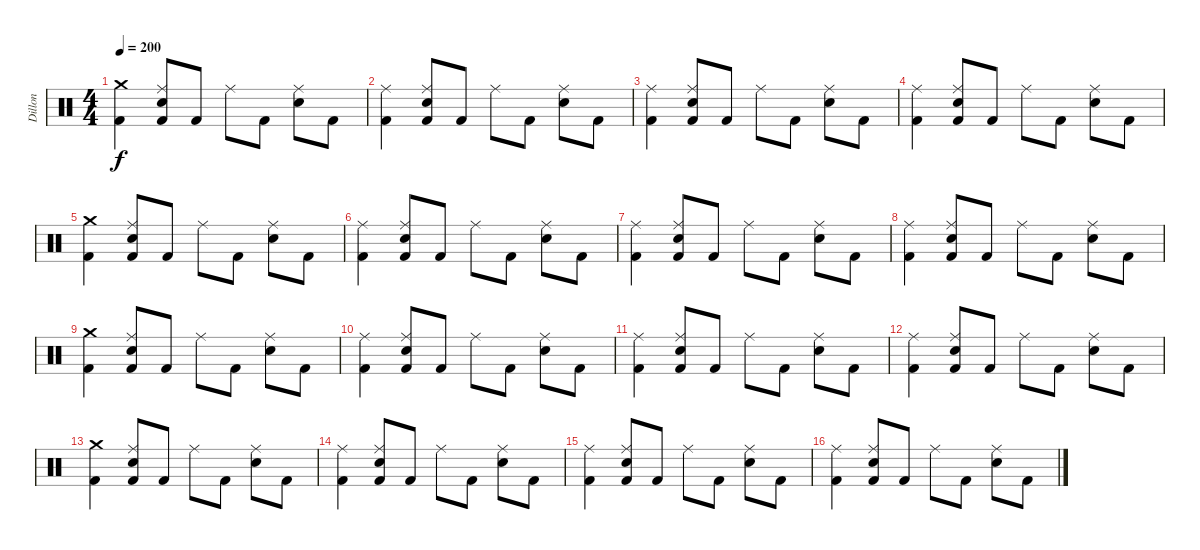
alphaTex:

\track ("Dillon" "Dillon") {instrument percussion}
\staff {score}
\articulation defaults
\ts (4 4)
\tempo 200
\clef neutral
\ks c
("Crash medium (hit)" "Kick (hit) 2").4{dy f} ("Ride (middle)" "Electric Snare (hit)" "Kick (hit) 2").8 "Kick (hit) 2".8 "Ride (middle)".8 "Kick (hit) 2".8 ("Ride (middle)" "Electric Snare (hit)").8 "Kick (hit) 2".8 |
("Ride (middle)" "Kick (hit) 2").4 ("Ride (middle)" "Electric Snare (hit)" "Kick (hit) 2").8 "Kick (hit) 2".8 "Ride (middle)".8 "Kick (hit) 2".8 ("Ride (middle)" "Electric Snare (hit)").8 "Kick (hit) 2".8 |
("Ride (middle)" "Kick (hit) 2").4 ("Ride (middle)" "Electric Snare (hit)" "Kick (hit) 2").8 "Kick (hit) 2".8 "Ride (middle)".8 "Kick (hit) 2".8 ("Ride (middle)" "Electric Snare (hit)").8 "Kick (hit) 2".8 |
("Ride (middle)" "Kick (hit) 2").4 ("Ride (middle)" "Electric Snare (hit)" "Kick (hit) 2").8 "Kick (hit) 2".8 "Ride (middle)".8 "Kick (hit) 2".8 ("Ride (middle)" "Electric Snare (hit)").8 "Kick (hit) 2".8 |
("Crash medium (hit)" "Kick (hit) 2").4 ("Ride (middle)" "Electric Snare (hit)" "Kick (hit) 2").8 "Kick (hit) 2".8 "Ride (middle)".8 "Kick (hit) 2".8 ("Ride (middle)" "Electric Snare (hit)").8 "Kick (hit) 2".8 |
("Ride (middle)" "Kick (hit) 2").4 ("Ride (middle)" "Electric Snare (hit)" "Kick (hit) 2").8 "Kick (hit) 2".8 "Ride (middle)".8 "Kick (hit) 2".8 ("Ride (middle)" "Electric Snare (hit)").8 "Kick (hit) 2".8 |
("Ride (middle)" "Kick (hit) 2").4 ("Ride (middle)" "Electric Snare (hit)" "Kick (hit) 2").8 "Kick (hit) 2".8 "Ride (middle)".8 "Kick (hit) 2".8 ("Ride (middle)" "Electric Snare (hit)").8 "Kick (hit) 2".8 |
("Ride (middle)" "Kick (hit) 2").4 ("Ride (middle)" "Electric Snare (hit)" "Kick (hit) 2").8 "Kick (hit) 2".8 "Ride (middle)".8 "Kick (hit) 2".8 ("Ride (middle)" "Electric Snare (hit)").8 "Kick (hit) 2".8 |
("Crash medium (hit)" "Kick (hit) 2").4 ("Ride (middle)" "Electric Snare (hit)" "Kick (hit) 2").8 "Kick (hit) 2".8 "Ride (middle)".8 "Kick (hit) 2".8 ("Ride (middle)" "Electric Snare (hit)").8 "Kick (hit) 2".8 |
("Ride (middle)" "Kick (hit) 2").4 ("Ride (middle)" "Electric Snare (hit)" "Kick (hit) 2").8 "Kick (hit) 2".8 "Ride (middle)".8 "Kick (hit) 2".8 ("Ride (middle)" "Electric Snare (hit)").8 "Kick (hit) 2".8 |
("Ride (middle)" "Kick (hit) 2").4 ("Ride (middle)" "Electric Snare (hit)" "Kick (hit) 2").8 "Kick (hit) 2".8 "Ride (middle)".8 "Kick (hit) 2".8 ("Ride (middle)" "Electric Snare (hit)").8 "Kick (hit) 2".8 |
("Ride (middle)" "Kick (hit) 2").4 ("Ride (middle)" "Electric Snare (hit)" "Kick (hit) 2").8 "Kick (hit) 2".8 "Ride (middle)".8 "Kick (hit) 2".8 ("Ride (middle)" "Electric Snare (hit)").8 "Kick (hit) 2".8 |
("Crash medium (hit)" "Kick (hit) 2").4 ("Ride (middle)" "Electric Snare (hit)" "Kick (hit) 2").8 "Kick (hit) 2".8 "Ride (middle)".8 "Kick (hit) 2".8 ("Ride (middle)" "Electric Snare (hit)").8 "Kick (hit) 2".8 |
("Ride (middle)" "Kick (hit) 2").4 ("Ride (middle)" "Electric Snare (hit)" "Kick (hit) 2").8 "Kick (hit) 2".8 "Ride (middle)".8 "Kick (hit) 2".8 ("Ride (middle)" "Electric Snare (hit)").8 "Kick (hit) 2".8 |
("Ride (middle)" "Kick (hit) 2").4 ("Ride (middle)" "Electric Snare (hit)" "Kick (hit) 2").8 "Kick (hit) 2".8 "Ride (middle)".8 "Kick (hit) 2".8 ("Ride (middle)" "Electric Snare (hit)").8 "Kick (hit) 2".8 |
("Ride (middle)" "Kick (hit) 2").4 ("Ride (middle)" "Electric Snare (hit)" "Kick (hit) 2").8 "Kick (hit) 2".8 "Ride (middle)".8 "Kick (hit) 2".8 ("Ride (middle)" "Electric Snare (hit)").8 "Kick (hit) 2".8
